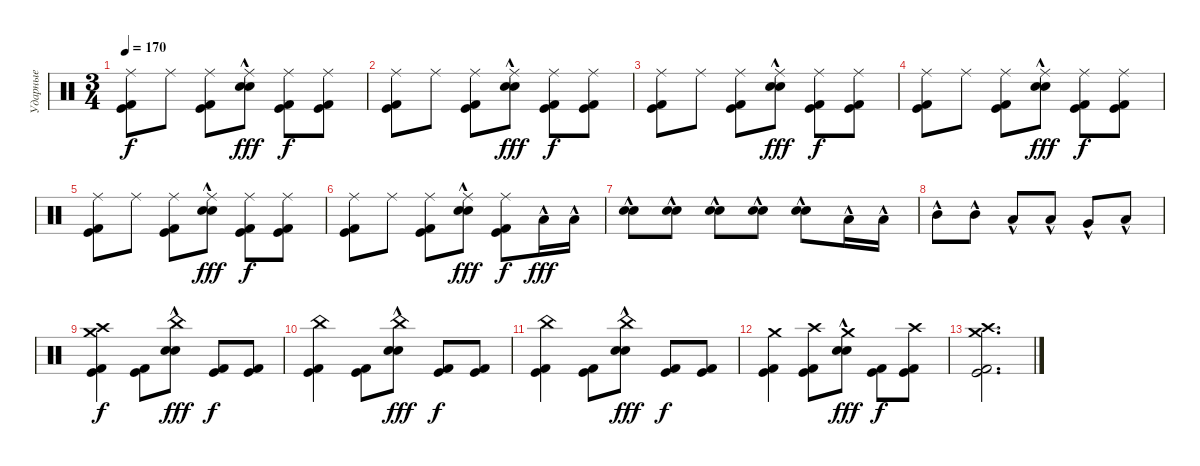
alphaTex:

\track ("Ударные" "Ударные") {instrument percussion}
\staff {score}
\articulation defaults
\ts (3 4)
\tempo 170
\clef neutral
\ks c
("Ride (middle)" "Kick (hit)" "Kick (hit) 2").8{dy f} "Ride (middle)".8 ("Ride (middle)" "Kick (hit)" "Kick (hit) 2").8 ("Ride (middle)" "Snare (hit) 2"{hac} "Electric Snare (hit)"{hac}).8{dy fff} ("Ride (middle)" "Kick (hit)" "Kick (hit) 2").8{dy f} ("Ride (middle)" "Kick (hit)" "Kick (hit) 2").8 |
("Ride (middle)" "Kick (hit)" "Kick (hit) 2").8 "Ride (middle)".8 ("Ride (middle)" "Kick (hit)" "Kick (hit) 2").8 ("Ride (middle)" "Snare (hit) 2"{hac} "Electric Snare (hit)"{hac}).8{dy fff} ("Ride (middle)" "Kick (hit)" "Kick (hit) 2").8{dy f} ("Ride (middle)" "Kick (hit)" "Kick (hit) 2").8 |
("Ride (middle)" "Kick (hit)" "Kick (hit) 2").8 "Ride (middle)".8 ("Ride (middle)" "Kick (hit)" "Kick (hit) 2").8 ("Ride (middle)" "Snare (hit) 2"{hac} "Electric Snare (hit)"{hac}).8{dy fff} ("Ride (middle)" "Kick (hit)" "Kick (hit) 2").8{dy f} ("Ride (middle)" "Kick (hit)" "Kick (hit) 2").8 |
("Ride (middle)" "Kick (hit)" "Kick (hit) 2").8 "Ride (middle)".8 ("Ride (middle)" "Kick (hit)" "Kick (hit) 2").8 ("Ride (middle)" "Snare (hit) 2"{hac} "Electric Snare (hit)"{hac}).8{dy fff} ("Ride (middle)" "Kick (hit)" "Kick (hit) 2").8{dy f} ("Ride (middle)" "Kick (hit)" "Kick (hit) 2").8 |
("Ride (middle)" "Kick (hit)" "Kick (hit) 2").8 "Ride (middle)".8 ("Ride (middle)" "Kick (hit)" "Kick (hit) 2").8 ("Ride (middle)" "Snare (hit) 2"{hac} "Electric Snare (hit)"{hac}).8{dy fff} ("Ride (middle)" "Kick (hit)" "Kick (hit) 2").8{dy f} ("Ride (middle)" "Kick (hit)" "Kick (hit) 2").8 |
("Ride (middle)" "Kick (hit)" "Kick (hit) 2").8 "Ride (middle)".8 ("Ride (middle)" "Kick (hit)" "Kick (hit) 2").8 ("Ride (middle)" "Snare (hit) 2"{hac} "Electric Snare (hit)"{hac}).8{dy fff} ("Ride (middle)" "Kick (hit)" "Kick (hit) 2").8{dy f} "Low Tom (hit)"{hac}.16{dy fff} "Low Tom (hit)"{hac}.16 |
("Snare (hit) 2"{hac} "Electric Snare (hit)"{hac}).8 ("Snare (hit) 2"{hac} "Electric Snare (hit)"{hac}).8 ("Snare (hit) 2"{hac} "Electric Snare (hit)"{hac}).8 ("Snare (hit) 2"{hac} "Electric Snare (hit)"{hac}).8 ("Snare (hit) 2"{hac} "Electric Snare (hit)"{hac}).8 "Low Floor Tom (hit)"{hac}.16 "Low Floor Tom (hit)"{hac}.16 |
"Mid Tom (hit)"{hac}.8 "Mid Tom (hit)"{hac}.8 "Low Tom (hit)"{hac}.8 "Low Tom (hit)"{hac}.8 "Very Low Tom (hit)"{hac}.8 "Low Floor Tom (hit)"{hac}.8 |
("Crash high (hit)" "Kick (hit)" "Kick (hit) 2" "Crash medium (hit)").4{dy f} ("Kick (hit)" "Kick (hit) 2").8 ("China (hit)" "Snare (hit) 2"{hac} "Electric Snare (hit)"{hac}).8{dy fff} ("Kick (hit)" "Kick (hit) 2").8{dy f} ("Kick (hit)" "Kick (hit) 2").8 |
("China (hit)" "Kick (hit)" "Kick (hit) 2").4 ("Kick (hit)" "Kick (hit) 2").8 ("China (hit)" "Snare (hit) 2"{hac} "Electric Snare (hit)"{hac}).8{dy fff} ("Kick (hit)" "Kick (hit) 2").8{dy f} ("Kick (hit)" "Kick (hit) 2").8 |
("China (hit)" "Kick (hit)" "Kick (hit) 2").4 ("Kick (hit)" "Kick (hit) 2").8 ("China (hit)" "Snare (hit) 2"{hac} "Electric Snare (hit)"{hac}).8{dy fff} ("Kick (hit)" "Kick (hit) 2").8{dy f} ("Kick (hit)" "Kick (hit) 2").8 |
("Crash medium (hit)" "Kick (hit)" "Kick (hit) 2").4 ("Crash high (hit)" "Kick (hit)" "Kick (hit) 2").8 ("Crash medium (hit)" "Snare (hit) 2"{hac} "Electric Snare (hit)"{hac}).8{dy fff} ("Kick (hit)" "Kick (hit) 2").8{dy f} ("Crash high (hit)" "Kick (hit)" "Kick (hit) 2").8 |
("Crash high (hit)" "Kick (hit)" "Kick (hit) 2" "Crash medium (hit)").2{d}
